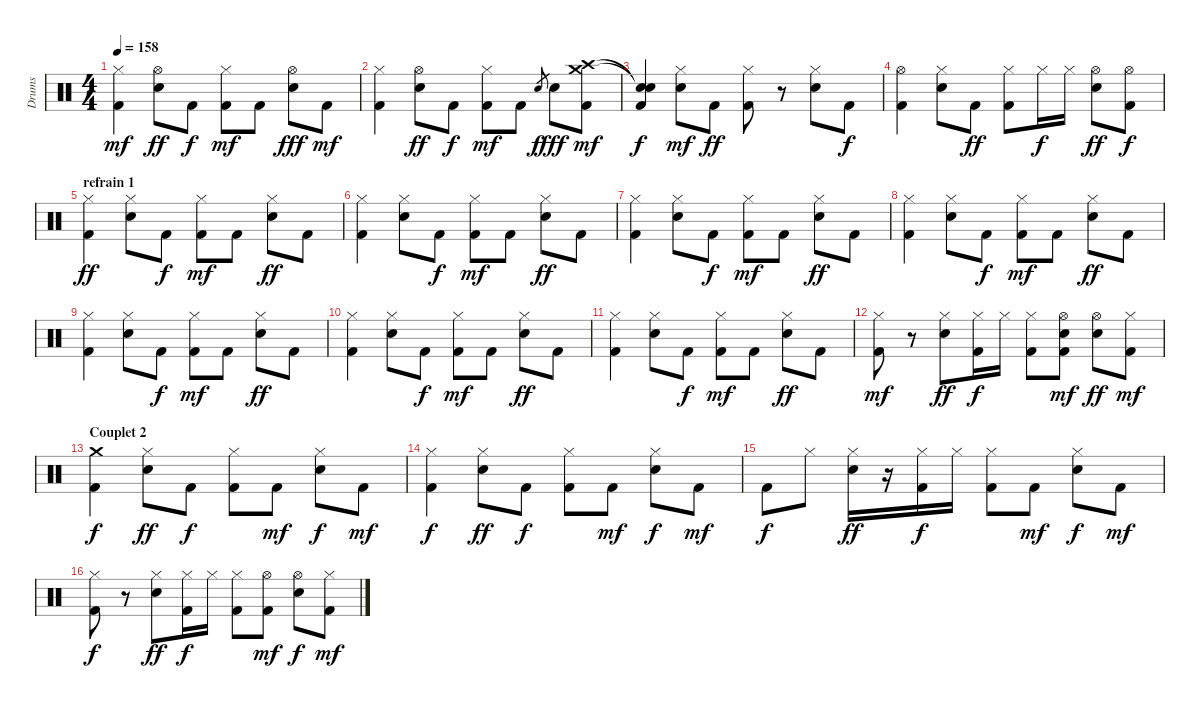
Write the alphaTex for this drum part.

\track ("Drums" "Drums") {instrument percussion}
\staff {score}
\articulation defaults
\ts (4 4)
\tempo 158
\clef neutral
\ks c
("Hi-Hat (closed)" "Kick (hit) 2").4{dy mf} ("Hi-Hat (open)" "Snare (hit) 2").8{dy ff} "Kick (hit) 2".8{dy f} ("Hi-Hat (closed)" "Kick (hit) 2").8{dy mf} "Kick (hit) 2".8 ("Hi-Hat (open)" "Snare (hit) 2").8{dy fff} "Kick (hit) 2".8{dy mf} |
("Hi-Hat (closed)" "Kick (hit) 2").4 ("Hi-Hat (open)" "Snare (hit) 2").8{dy ff} "Kick (hit) 2".8{dy f} ("Hi-Hat (closed)" "Kick (hit) 2").8{dy mf} "Kick (hit) 2".8 "Snare (hit) 2".8{gr dy f} "Snare (hit) 2".8{dy fff} ("Crash medium (hit)" "Crash high (hit)" "Kick (hit) 2").8{dy mf} |
("Snare (hit)"{t} "Snare (hit)"{t} "Kick (hit) 2").4{dy f} ("Hi-Hat (closed)" "Snare (hit) 2").8{dy mf} "Kick (hit) 2".8{dy ff} ("Hi-Hat (closed)" "Kick (hit) 2").8 r.8 ("Hi-Hat (closed)" "Snare (hit) 2").8 "Kick (hit) 2".8{dy f} |
("Hi-Hat (open)" "Kick (hit) 2").4 ("Hi-Hat (closed)" "Snare (hit) 2").8 "Kick (hit) 2".8{dy ff} ("Hi-Hat (closed)" "Kick (hit) 2").8 "Hi-Hat (closed)".16{dy f} "Hi-Hat (closed)".16 ("Hi-Hat (open)" "Snare (hit) 2").8{dy ff} ("Hi-Hat (open)" "Kick (hit) 2").8{dy f} |
\section ("" "refrain 1")
("Hi-Hat (closed)" "Kick (hit) 2").4{dy ff} ("Hi-Hat (closed)" "Snare (hit) 2").8 "Kick (hit) 2".8{dy f} ("Hi-Hat (closed)" "Kick (hit) 2").8{dy mf} "Kick (hit) 2".8 ("Hi-Hat (closed)" "Snare (hit) 2").8{dy ff} "Kick (hit) 2".8 |
("Hi-Hat (closed)" "Kick (hit) 2").4 ("Hi-Hat (closed)" "Snare (hit) 2").8 "Kick (hit) 2".8{dy f} ("Hi-Hat (closed)" "Kick (hit) 2").8{dy mf} "Kick (hit) 2".8 ("Hi-Hat (closed)" "Snare (hit) 2").8{dy ff} "Kick (hit) 2".8 |
("Hi-Hat (closed)" "Kick (hit) 2").4 ("Hi-Hat (closed)" "Snare (hit) 2").8 "Kick (hit) 2".8{dy f} ("Hi-Hat (closed)" "Kick (hit) 2").8{dy mf} "Kick (hit) 2".8 ("Hi-Hat (closed)" "Snare (hit) 2").8{dy ff} "Kick (hit) 2".8 |
("Hi-Hat (closed)" "Kick (hit) 2").4 ("Hi-Hat (closed)" "Snare (hit) 2").8 "Kick (hit) 2".8{dy f} ("Hi-Hat (closed)" "Kick (hit) 2").8{dy mf} "Kick (hit) 2".8 ("Hi-Hat (closed)" "Snare (hit) 2").8{dy ff} "Kick (hit) 2".8 |
("Hi-Hat (closed)" "Kick (hit) 2").4 ("Hi-Hat (closed)" "Snare (hit) 2").8 "Kick (hit) 2".8{dy f} ("Hi-Hat (closed)" "Kick (hit) 2").8{dy mf} "Kick (hit) 2".8 ("Hi-Hat (closed)" "Snare (hit) 2").8{dy ff} "Kick (hit) 2".8 |
("Hi-Hat (closed)" "Kick (hit) 2").4 ("Hi-Hat (closed)" "Snare (hit) 2").8 "Kick (hit) 2".8{dy f} ("Hi-Hat (closed)" "Kick (hit) 2").8{dy mf} "Kick (hit) 2".8 ("Hi-Hat (closed)" "Snare (hit) 2").8{dy ff} "Kick (hit) 2".8 |
("Hi-Hat (closed)" "Kick (hit) 2").4 ("Hi-Hat (closed)" "Snare (hit) 2").8 "Kick (hit) 2".8{dy f} ("Hi-Hat (closed)" "Kick (hit) 2").8{dy mf} "Kick (hit) 2".8 ("Hi-Hat (closed)" "Snare (hit) 2").8{dy ff} "Kick (hit) 2".8 |
("Hi-Hat (closed)" "Kick (hit) 2").8{dy mf} r.8 ("Hi-Hat (closed)" "Snare (hit) 2").8{dy ff} ("Hi-Hat (closed)" "Kick (hit) 2").16{dy f} "Hi-Hat (closed)".16 ("Hi-Hat (closed)" "Kick (hit) 2").8 ("Hi-Hat (open)" "Snare (hit) 2" "Kick (hit) 2").8{dy mf} ("Hi-Hat (open)" "Snare (hit) 2").8{dy ff} ("Hi-Hat (closed)" "Kick (hit) 2").8{dy mf} |
\section ("" "Couplet 2")
("Crash medium (hit)" "Kick (hit) 2").4{dy f} ("Hi-Hat (closed)" "Snare (hit) 2").8{dy ff} "Kick (hit) 2".8{dy f} ("Hi-Hat (closed)" "Kick (hit) 2").8 "Kick (hit) 2".8{dy mf} ("Hi-Hat (closed)" "Snare (hit) 2").8{dy f} "Kick (hit) 2".8{dy mf} |
("Hi-Hat (closed)" "Kick (hit) 2").4{dy f} ("Hi-Hat (closed)" "Snare (hit) 2").8{dy ff} "Kick (hit) 2".8{dy f} ("Hi-Hat (closed)" "Kick (hit) 2").8 "Kick (hit) 2".8{dy mf} ("Hi-Hat (closed)" "Snare (hit) 2").8{dy f} "Kick (hit) 2".8{dy mf} |
"Kick (hit) 2".8{dy f} "Hi-Hat (closed)".8 ("Hi-Hat (closed)" "Snare (hit) 2").16{dy ff} r.16 ("Hi-Hat (closed)" "Kick (hit) 2").16{dy f} "Hi-Hat (closed)".16 ("Hi-Hat (closed)" "Kick (hit) 2").8 "Kick (hit) 2".8{dy mf} ("Hi-Hat (closed)" "Snare (hit) 2").8{dy f} "Kick (hit) 2".8{dy mf} |
("Hi-Hat (closed)" "Kick (hit) 2").8{dy f} r.8 ("Hi-Hat (closed)" "Snare (hit) 2").8{dy ff} ("Hi-Hat (closed)" "Kick (hit) 2").16{dy f} "Hi-Hat (closed)".16 ("Hi-Hat (closed)" "Kick (hit) 2").8 ("Hi-Hat (open)" "Kick (hit) 2").8{dy mf} ("Hi-Hat (open)" "Snare (hit) 2").8{dy f} ("Hi-Hat (closed)" "Kick (hit) 2").8{dy mf}
